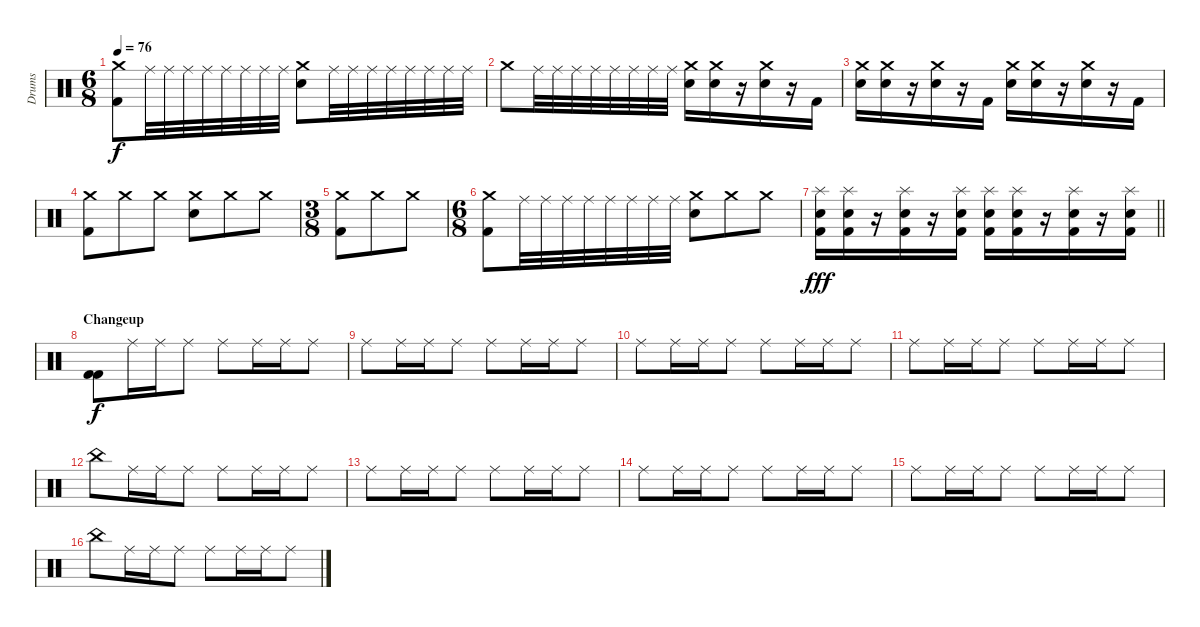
\track ("Drums" "Drums") {instrument percussion}
\staff {score}
\articulation defaults
\ts (6 8)
\tempo 76
\clef neutral
\ks c
("Crash medium (hit)" "Kick (hit) 2").8{dy f} "Ride (middle)".32 "Ride (middle)".32 "Ride (middle)".32 "Ride (middle)".32 "Ride (middle)".32 "Ride (middle)".32 "Ride (middle)".32 "Ride (middle)".32 ("Crash medium (hit)" "Snare (hit) 2").8 "Ride (middle)".32 "Ride (middle)".32 "Ride (middle)".32 "Ride (middle)".32 "Ride (middle)".32 "Ride (middle)".32 "Ride (middle)".32 "Ride (middle)".32 |
"Crash medium (hit)".8 "Ride (middle)".32 "Ride (middle)".32 "Ride (middle)".32 "Ride (middle)".32 "Ride (middle)".32 "Ride (middle)".32 "Ride (middle)".32 "Ride (middle)".32 ("Crash medium (hit)" "Snare (hit) 2").16 ("Crash medium (hit)" "Snare (hit) 2").16 r.16 ("Crash medium (hit)" "Snare (hit) 2").16 r.16 "Kick (hit) 2".16 |
("Crash medium (hit)" "Snare (hit) 2").16 ("Crash medium (hit)" "Snare (hit) 2").16 r.16 ("Crash medium (hit)" "Snare (hit) 2").16 r.16 "Kick (hit) 2".16 ("Crash medium (hit)" "Snare (hit) 2").16 ("Crash medium (hit)" "Snare (hit) 2").16 r.16 ("Crash medium (hit)" "Snare (hit) 2").16 r.16 "Kick (hit) 2".16 |
("Crash medium (hit)" "Kick (hit) 2").8 "Crash medium (hit)".8 "Crash medium (hit)".8 ("Crash medium (hit)" "Snare (hit) 2").8 "Crash medium (hit)".8 "Crash medium (hit)".8 |
\ts (3 8)
("Crash medium (hit)" "Kick (hit) 2").8 "Crash medium (hit)".8 "Crash medium (hit)".8 |
\ts (6 8)
("Crash medium (hit)" "Kick (hit) 2").8 "Ride (middle)".32 "Ride (middle)".32 "Ride (middle)".32 "Ride (middle)".32 "Ride (middle)".32 "Ride (middle)".32 "Ride (middle)".32 "Ride (middle)".32 ("Crash medium (hit)" "Snare (hit) 2").8 "Crash medium (hit)".8 "Crash medium (hit)".8 |
\barLineRight lightlight
("Splash (hit)" "Snare (hit) 2" "Kick (hit) 2").16{dy fff} ("Splash (hit)" "Snare (hit) 2" "Kick (hit) 2").16 r.16 ("Splash (hit)" "Snare (hit) 2" "Kick (hit) 2").16 r.16 ("Splash (hit)" "Snare (hit) 2" "Kick (hit) 2").16 ("Splash (hit)" "Snare (hit) 2" "Kick (hit) 2").16 ("Splash (hit)" "Snare (hit) 2" "Kick (hit) 2").16 r.16 ("Splash (hit)" "Snare (hit) 2" "Kick (hit) 2").16 r.16 ("Splash (hit)" "Snare (hit) 2" "Kick (hit) 2").16 |
\section ("" "Changeup")
("Kick (hit) 2" "Kick (hit) 2").8{dy f} "Ride (middle)".16 "Ride (middle)".16 "Ride (middle)".8 "Ride (middle)".8 "Ride (middle)".16 "Ride (middle)".16 "Ride (middle)".8 |
"Ride (middle)".8 "Ride (middle)".16 "Ride (middle)".16 "Ride (middle)".8 "Ride (middle)".8 "Ride (middle)".16 "Ride (middle)".16 "Ride (middle)".8 |
"Ride (middle)".8 "Ride (middle)".16 "Ride (middle)".16 "Ride (middle)".8 "Ride (middle)".8 "Ride (middle)".16 "Ride (middle)".16 "Ride (middle)".8 |
"Ride (middle)".8 "Ride (middle)".16 "Ride (middle)".16 "Ride (middle)".8 "Ride (middle)".8 "Ride (middle)".16 "Ride (middle)".16 "Ride (middle)".8 |
"China (hit)".8 "Ride (middle)".16 "Ride (middle)".16 "Ride (middle)".8 "Ride (middle)".8 "Ride (middle)".16 "Ride (middle)".16 "Ride (middle)".8 |
"Ride (middle)".8 "Ride (middle)".16 "Ride (middle)".16 "Ride (middle)".8 "Ride (middle)".8 "Ride (middle)".16 "Ride (middle)".16 "Ride (middle)".8 |
"Ride (middle)".8 "Ride (middle)".16 "Ride (middle)".16 "Ride (middle)".8 "Ride (middle)".8 "Ride (middle)".16 "Ride (middle)".16 "Ride (middle)".8 |
"Ride (middle)".8 "Ride (middle)".16 "Ride (middle)".16 "Ride (middle)".8 "Ride (middle)".8 "Ride (middle)".16 "Ride (middle)".16 "Ride (middle)".8 |
"China (hit)".8 "Ride (middle)".16 "Ride (middle)".16 "Ride (middle)".8 "Ride (middle)".8 "Ride (middle)".16 "Ride (middle)".16 "Ride (middle)".8
